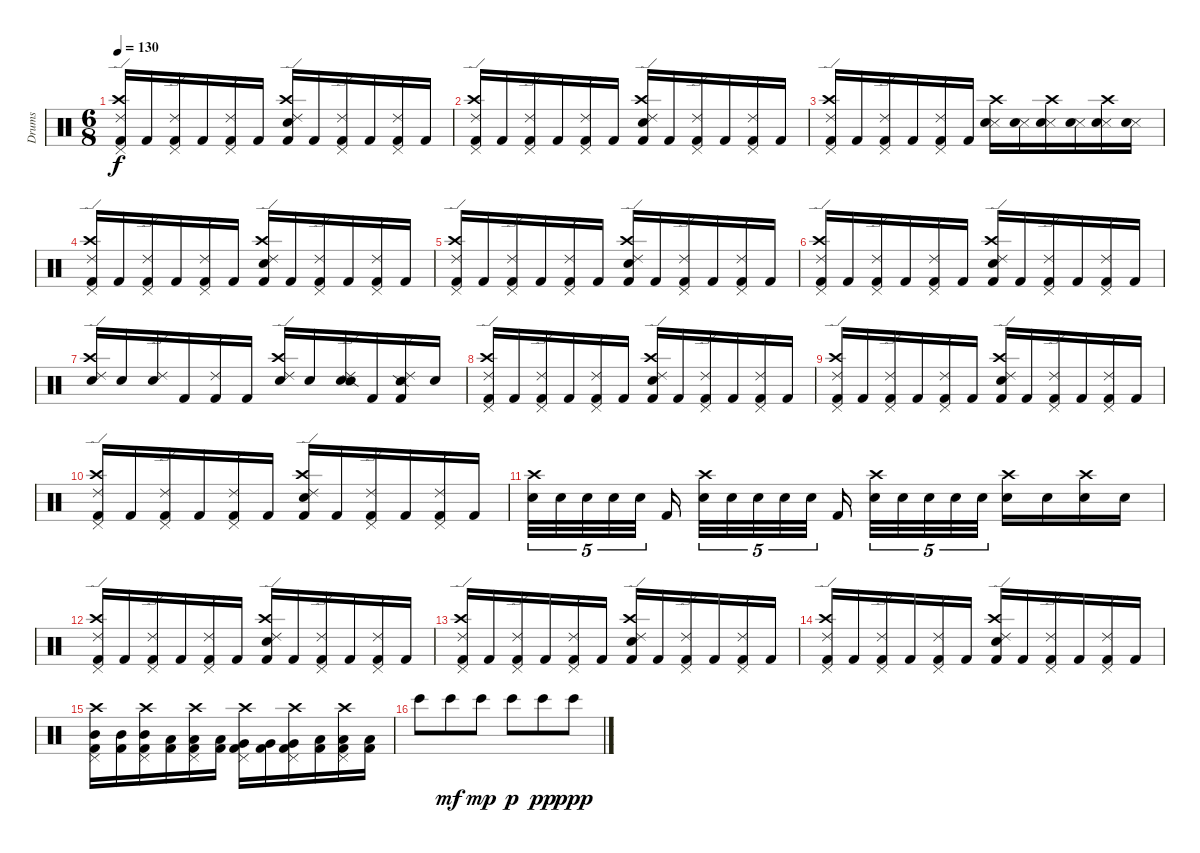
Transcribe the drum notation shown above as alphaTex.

\track ("Drums" "Drums") {instrument percussion}
\staff {score}
\articulation defaults
\ts (6 8)
\tempo 130
\clef neutral
\ks c
("Ride (edge) 2" "Crash high (hit)" "Pedal Hi-Hat (hit)" "Kick (hit) 2").16{dy f} "Kick (hit) 2".16 ("Ride (edge) 2" "Pedal Hi-Hat (hit)" "Kick (hit) 2").16 "Kick (hit) 2".16 ("Ride (edge) 2" "Pedal Hi-Hat (hit)" "Kick (hit) 2").16 "Kick (hit) 2".16 ("Ride (edge) 2" "Crash high (hit)" "Electric Snare (hit)" "Kick (hit) 2").16 "Kick (hit) 2".16 ("Ride (edge) 2" "Pedal Hi-Hat (hit)" "Kick (hit) 2").16 "Kick (hit) 2".16 ("Ride (edge) 2" "Pedal Hi-Hat (hit)" "Kick (hit) 2").16 "Kick (hit) 2".16 |
("Ride (edge) 2" "Crash high (hit)" "Pedal Hi-Hat (hit)" "Kick (hit) 2").16 "Kick (hit) 2".16 ("Ride (edge) 2" "Pedal Hi-Hat (hit)" "Kick (hit) 2").16 "Kick (hit) 2".16 ("Ride (edge) 2" "Pedal Hi-Hat (hit)" "Kick (hit) 2").16 "Kick (hit) 2".16 ("Ride (edge) 2" "Crash high (hit)" "Electric Snare (hit)" "Kick (hit) 2").16 "Kick (hit) 2".16 ("Ride (edge) 2" "Pedal Hi-Hat (hit)" "Kick (hit) 2").16 "Kick (hit) 2".16 ("Ride (edge) 2" "Pedal Hi-Hat (hit)" "Kick (hit) 2").16 "Kick (hit) 2".16 |
("Ride (edge) 2" "Crash high (hit)" "Pedal Hi-Hat (hit)" "Kick (hit) 2").16 "Kick (hit) 2".16 ("Ride (edge) 2" "Pedal Hi-Hat (hit)" "Kick (hit) 2").16 "Kick (hit) 2".16 ("Ride (edge) 2" "Pedal Hi-Hat (hit)" "Kick (hit) 2").16 "Kick (hit) 2".16 ("Crash high (hit)" "Snare (side stick) 3" "Electric Snare (hit)").16 ("Snare (side stick) 3" "Electric Snare (hit)").16 ("Crash high (hit)" "Snare (side stick) 3" "Electric Snare (hit)").16 ("Snare (side stick) 3" "Electric Snare (hit)").16 ("Crash high (hit)" "Snare (side stick) 3" "Electric Snare (hit)").16 ("Snare (side stick) 3" "Electric Snare (hit)").16 |
("Ride (edge) 2" "Crash high (hit)" "Pedal Hi-Hat (hit)" "Kick (hit) 2").16 "Kick (hit) 2".16 ("Ride (edge) 2" "Pedal Hi-Hat (hit)" "Kick (hit) 2").16 "Kick (hit) 2".16 ("Ride (edge) 2" "Pedal Hi-Hat (hit)" "Kick (hit) 2").16 "Kick (hit) 2".16 ("Ride (edge) 2" "Crash high (hit)" "Electric Snare (hit)" "Kick (hit) 2").16 "Kick (hit) 2".16 ("Ride (edge) 2" "Pedal Hi-Hat (hit)" "Kick (hit) 2").16 "Kick (hit) 2".16 ("Ride (edge) 2" "Pedal Hi-Hat (hit)" "Kick (hit) 2").16 "Kick (hit) 2".16 |
("Ride (edge) 2" "Crash high (hit)" "Pedal Hi-Hat (hit)" "Kick (hit) 2").16 "Kick (hit) 2".16 ("Ride (edge) 2" "Pedal Hi-Hat (hit)" "Kick (hit) 2").16 "Kick (hit) 2".16 ("Ride (edge) 2" "Pedal Hi-Hat (hit)" "Kick (hit) 2").16 "Kick (hit) 2".16 ("Ride (edge) 2" "Crash high (hit)" "Electric Snare (hit)" "Kick (hit) 2").16 "Kick (hit) 2".16 ("Ride (edge) 2" "Pedal Hi-Hat (hit)" "Kick (hit) 2").16 "Kick (hit) 2".16 ("Ride (edge) 2" "Pedal Hi-Hat (hit)" "Kick (hit) 2").16 "Kick (hit) 2".16 |
("Ride (edge) 2" "Crash high (hit)" "Pedal Hi-Hat (hit)" "Kick (hit) 2").16 "Kick (hit) 2".16 ("Ride (edge) 2" "Pedal Hi-Hat (hit)" "Kick (hit) 2").16 "Kick (hit) 2".16 ("Ride (edge) 2" "Pedal Hi-Hat (hit)" "Kick (hit) 2").16 "Kick (hit) 2".16 ("Ride (edge) 2" "Crash high (hit)" "Electric Snare (hit)" "Kick (hit) 2").16 "Kick (hit) 2".16 ("Ride (edge) 2" "Pedal Hi-Hat (hit)" "Kick (hit) 2").16 "Kick (hit) 2".16 ("Ride (edge) 2" "Pedal Hi-Hat (hit)" "Kick (hit) 2").16 "Kick (hit) 2".16 |
("Ride (edge) 2" "Crash high (hit)" "Electric Snare (hit)").16 "Electric Snare (hit)".16 ("Ride (edge) 2" "Electric Snare (hit)").16 "Kick (hit) 2".16 ("Ride (edge) 2" "Kick (hit) 2").16 "Kick (hit) 2".16 ("Ride (edge) 2" "Crash high (hit)" "Electric Snare (hit)").16 "Electric Snare (hit)".16 ("Ride (edge) 2" "Electric Snare (hit)" "Snare (side stick) 2").16 "Kick (hit) 2".16 ("Ride (edge) 2" "Snare (side stick) 2" "Kick (hit) 2").16 "Electric Snare (hit)".16 |
("Ride (edge) 2" "Crash high (hit)" "Pedal Hi-Hat (hit)" "Kick (hit) 2").16 "Kick (hit) 2".16 ("Ride (edge) 2" "Pedal Hi-Hat (hit)" "Kick (hit) 2").16 "Kick (hit) 2".16 ("Ride (edge) 2" "Pedal Hi-Hat (hit)" "Kick (hit) 2").16 "Kick (hit) 2".16 ("Ride (edge) 2" "Crash high (hit)" "Electric Snare (hit)" "Kick (hit) 2").16 "Kick (hit) 2".16 ("Ride (edge) 2" "Pedal Hi-Hat (hit)" "Kick (hit) 2").16 "Kick (hit) 2".16 ("Ride (edge) 2" "Pedal Hi-Hat (hit)" "Kick (hit) 2").16 "Kick (hit) 2".16 |
("Ride (edge) 2" "Crash high (hit)" "Pedal Hi-Hat (hit)" "Kick (hit) 2").16 "Kick (hit) 2".16 ("Ride (edge) 2" "Pedal Hi-Hat (hit)" "Kick (hit) 2").16 "Kick (hit) 2".16 ("Ride (edge) 2" "Pedal Hi-Hat (hit)" "Kick (hit) 2").16 "Kick (hit) 2".16 ("Ride (edge) 2" "Crash high (hit)" "Electric Snare (hit)" "Kick (hit) 2").16 "Kick (hit) 2".16 ("Ride (edge) 2" "Pedal Hi-Hat (hit)" "Kick (hit) 2").16 "Kick (hit) 2".16 ("Ride (edge) 2" "Pedal Hi-Hat (hit)" "Kick (hit) 2").16 "Kick (hit) 2".16 |
("Ride (edge) 2" "Crash high (hit)" "Pedal Hi-Hat (hit)" "Kick (hit) 2").16 "Kick (hit) 2".16 ("Ride (edge) 2" "Pedal Hi-Hat (hit)" "Kick (hit) 2").16 "Kick (hit) 2".16 ("Ride (edge) 2" "Pedal Hi-Hat (hit)" "Kick (hit) 2").16 "Kick (hit) 2".16 ("Ride (edge) 2" "Crash high (hit)" "Electric Snare (hit)" "Kick (hit) 2").16 "Kick (hit) 2".16 ("Ride (edge) 2" "Pedal Hi-Hat (hit)" "Kick (hit) 2").16 "Kick (hit) 2".16 ("Ride (edge) 2" "Pedal Hi-Hat (hit)" "Kick (hit) 2").16 "Kick (hit) 2".16 |
("Crash high (hit)" "Electric Snare (hit)").32{tu (5 4)} "Electric Snare (hit)".32{tu (5 4)} "Electric Snare (hit)".32{tu (5 4)} "Electric Snare (hit)".32{tu (5 4)} "Electric Snare (hit)".32{tu (5 4)} "Kick (hit) 2".16 ("Crash high (hit)" "Electric Snare (hit)").32{tu (5 4)} "Electric Snare (hit)".32{tu (5 4)} "Electric Snare (hit)".32{tu (5 4)} "Electric Snare (hit)".32{tu (5 4)} "Electric Snare (hit)".32{tu (5 4)} "Kick (hit) 2".16 ("Crash high (hit)" "Electric Snare (hit)").32{tu (5 4)} "Electric Snare (hit)".32{tu (5 4)} "Electric Snare (hit)".32{tu (5 4)} "Electric Snare (hit)".32{tu (5 4)} "Electric Snare (hit)".32{tu (5 4)} ("Crash high (hit)" "Electric Snare (hit)").16 "Electric Snare (hit)".16 ("Crash high (hit)" "Electric Snare (hit)").16 "Electric Snare (hit)".16 |
("Ride (edge) 2" "Crash high (hit)" "Pedal Hi-Hat (hit)" "Kick (hit) 2").16 "Kick (hit) 2".16 ("Ride (edge) 2" "Pedal Hi-Hat (hit)" "Kick (hit) 2").16 "Kick (hit) 2".16 ("Ride (edge) 2" "Pedal Hi-Hat (hit)" "Kick (hit) 2").16 "Kick (hit) 2".16 ("Ride (edge) 2" "Crash high (hit)" "Electric Snare (hit)" "Kick (hit) 2").16 "Kick (hit) 2".16 ("Ride (edge) 2" "Pedal Hi-Hat (hit)" "Kick (hit) 2").16 "Kick (hit) 2".16 ("Ride (edge) 2" "Pedal Hi-Hat (hit)" "Kick (hit) 2").16 "Kick (hit) 2".16 |
("Ride (edge) 2" "Crash high (hit)" "Pedal Hi-Hat (hit)" "Kick (hit) 2").16 "Kick (hit) 2".16 ("Ride (edge) 2" "Pedal Hi-Hat (hit)" "Kick (hit) 2").16 "Kick (hit) 2".16 ("Ride (edge) 2" "Pedal Hi-Hat (hit)" "Kick (hit) 2").16 "Kick (hit) 2".16 ("Ride (edge) 2" "Crash high (hit)" "Electric Snare (hit)" "Kick (hit) 2").16 "Kick (hit) 2".16 ("Ride (edge) 2" "Pedal Hi-Hat (hit)" "Kick (hit) 2").16 "Kick (hit) 2".16 ("Ride (edge) 2" "Pedal Hi-Hat (hit)" "Kick (hit) 2").16 "Kick (hit) 2".16 |
("Ride (edge) 2" "Crash high (hit)" "Pedal Hi-Hat (hit)" "Kick (hit) 2").16 "Kick (hit) 2".16 ("Ride (edge) 2" "Pedal Hi-Hat (hit)" "Kick (hit) 2").16 "Kick (hit) 2".16 ("Ride (edge) 2" "Pedal Hi-Hat (hit)" "Kick (hit) 2").16 "Kick (hit) 2".16 ("Ride (edge) 2" "Crash high (hit)" "Electric Snare (hit)" "Kick (hit) 2").16 "Kick (hit) 2".16 ("Ride (edge) 2" "Pedal Hi-Hat (hit)" "Kick (hit) 2").16 "Kick (hit) 2".16 ("Ride (edge) 2" "Pedal Hi-Hat (hit)" "Kick (hit) 2").16 "Kick (hit) 2".16 |
("Crash high (hit)" "Pedal Hi-Hat (hit)" "Mid Tom (hit)" "Kick (hit) 2").16 ("Mid Tom (hit)" "Kick (hit) 2").16 ("Crash high (hit)" "Pedal Hi-Hat (hit)" "Mid Tom (hit)" "Kick (hit) 2").16 ("Low Tom (hit)" "Kick (hit) 2").16 ("Crash high (hit)" "Pedal Hi-Hat (hit)" "Low Tom (hit)" "Kick (hit) 2").16 ("Low Tom (hit)" "Kick (hit) 2").16 ("Crash high (hit)" "Pedal Hi-Hat (hit)" "Very Low Tom (hit)" "Kick (hit) 2").16 ("Very Low Tom (hit)" "Kick (hit) 2").16 ("Crash high (hit)" "Pedal Hi-Hat (hit)" "Very Low Tom (hit)" "Kick (hit) 2").16 ("Low Floor Tom (hit)" "Kick (hit) 2").16 ("Crash high (hit)" "Pedal Hi-Hat (hit)" "Low Floor Tom (hit)" "Kick (hit) 2").16 ("Low Floor Tom (hit)" "Kick (hit) 2").16 |
"Bongo High (hit)".8{balance 0} "Bongo High (hit)".8{dy mf balance 16} "Bongo High (hit)".8{dy mp balance 0} "Bongo High (hit)".8{dy p balance 16} "Bongo High (hit)".8{dy pp balance 0} "Bongo High (hit)".8{dy ppp balance 16}
